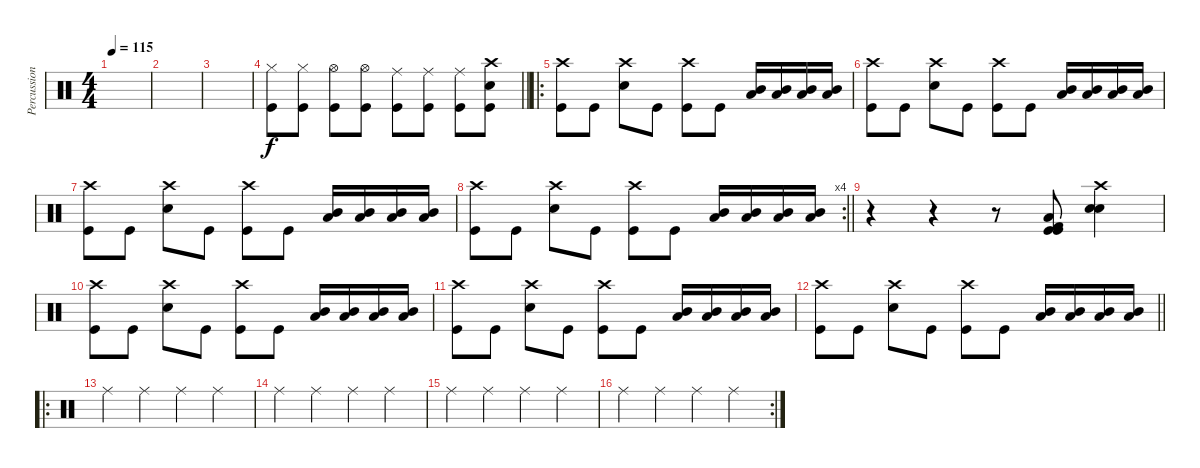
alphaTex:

\track ("Percussion" "Percussion") {instrument percussion}
\staff {score}
\articulation defaults
\ts (4 4)
\tempo 115
\clef neutral
\ks c
|
|
|
\barLineRight lightlight
("Hi-Hat (closed)" "Kick (hit)").8 ("Hi-Hat (closed)" "Kick (hit)").8 ("Hi-Hat (open)" "Kick (hit)").8 ("Hi-Hat (open)" "Kick (hit)").8 ("Ride (middle)" "Kick (hit)").8 ("Ride (middle)" "Kick (hit)").8 ("Ride (middle)" "Kick (hit)").8 ("Crash high (hit)" "Snare (hit) 2" "Kick (hit)").8 |
\ro
("Crash high (hit)" "Kick (hit)").8 "Kick (hit)".8 ("Crash high (hit)" "Snare (hit) 2").8 "Kick (hit)".8 ("Crash high (hit)" "Kick (hit)").8 "Kick (hit)".8 ("Mid Tom (hit)" "Low Tom (hit)").16 ("Mid Tom (hit)" "Low Tom (hit)").16 ("Mid Tom (hit)" "Low Tom (hit)").16 ("Mid Tom (hit)" "Low Tom (hit)").16 |
("Crash high (hit)" "Kick (hit)").8 "Kick (hit)".8 ("Crash high (hit)" "Snare (hit) 2").8 "Kick (hit)".8 ("Crash high (hit)" "Kick (hit)").8 "Kick (hit)".8 ("Mid Tom (hit)" "Low Tom (hit)").16 ("Mid Tom (hit)" "Low Tom (hit)").16 ("Mid Tom (hit)" "Low Tom (hit)").16 ("Mid Tom (hit)" "Low Tom (hit)").16 |
("Crash high (hit)" "Kick (hit)").8 "Kick (hit)".8 ("Crash high (hit)" "Snare (hit) 2").8 "Kick (hit)".8 ("Crash high (hit)" "Kick (hit)").8 "Kick (hit)".8 ("Mid Tom (hit)" "Low Tom (hit)").16 ("Mid Tom (hit)" "Low Tom (hit)").16 ("Mid Tom (hit)" "Low Tom (hit)").16 ("Mid Tom (hit)" "Low Tom (hit)").16 |
\rc 4
\barLineRight lightlight
("Crash high (hit)" "Kick (hit)").8 "Kick (hit)".8 ("Crash high (hit)" "Snare (hit) 2").8 "Kick (hit)".8 ("Crash high (hit)" "Kick (hit)").8 "Kick (hit)".8 ("Mid Tom (hit)" "Low Tom (hit)").16 ("Mid Tom (hit)" "Low Tom (hit)").16 ("Mid Tom (hit)" "Low Tom (hit)").16 ("Mid Tom (hit)" "Low Tom (hit)").16 |
r.4 r.4 r.8 ("Kick (hit)" "Kick (hit) 2" "Kick (hit)" "Low Tom (hit)").8 ("Crash high (hit)" "Electric Snare (hit)" "Snare (hit) 2").4 |
("Crash high (hit)" "Kick (hit)").8 "Kick (hit)".8 ("Crash high (hit)" "Snare (hit) 2").8 "Kick (hit)".8 ("Crash high (hit)" "Kick (hit)").8 "Kick (hit)".8 ("Mid Tom (hit)" "Low Tom (hit)").16 ("Mid Tom (hit)" "Low Tom (hit)").16 ("Mid Tom (hit)" "Low Tom (hit)").16 ("Mid Tom (hit)" "Low Tom (hit)").16 |
("Crash high (hit)" "Kick (hit)").8 "Kick (hit)".8 ("Crash high (hit)" "Snare (hit) 2").8 "Kick (hit)".8 ("Crash high (hit)" "Kick (hit)").8 "Kick (hit)".8 ("Mid Tom (hit)" "Low Tom (hit)").16 ("Mid Tom (hit)" "Low Tom (hit)").16 ("Mid Tom (hit)" "Low Tom (hit)").16 ("Mid Tom (hit)" "Low Tom (hit)").16 |
\barLineRight lightlight
("Crash high (hit)" "Kick (hit)").8 "Kick (hit)".8 ("Crash high (hit)" "Snare (hit) 2").8 "Kick (hit)".8 ("Crash high (hit)" "Kick (hit)").8 "Kick (hit)".8 ("Mid Tom (hit)" "Low Tom (hit)").16 ("Mid Tom (hit)" "Low Tom (hit)").16 ("Mid Tom (hit)" "Low Tom (hit)").16 ("Mid Tom (hit)" "Low Tom (hit)").16 |
\ro "Ride (middle)".4 "Ride (middle)".4 "Ride (middle)".4 "Ride (middle)".4
|
"Ride (middle)".4 "Ride (middle)".4 "Ride (middle)".4 "Ride (middle)".4 |
"Ride (middle)".4 "Ride (middle)".4 "Ride (middle)".4 "Ride (middle)".4 |
\rc 2 "Ride (middle)".4 "Ride (middle)".4 "Ride (middle)".4 "Ride (middle)".4
